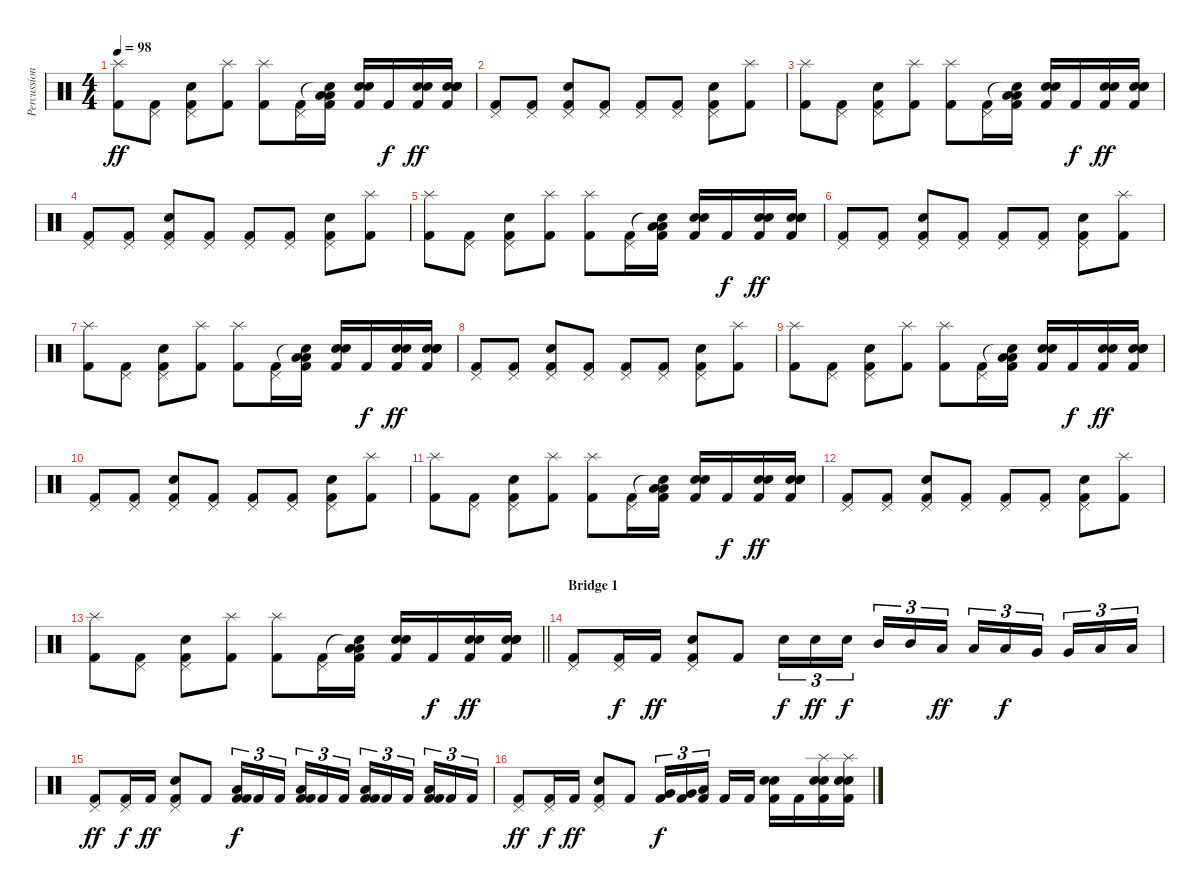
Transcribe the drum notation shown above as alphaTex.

\track ("Percussion" "Percussion") {instrument percussion}
\staff {score}
\articulation defaults
\ts (4 4)
\tempo 98
\clef neutral
\ks c
("Splash (hit)" "Kick (hit) 2").8{dy ff} ("Pedal Hi-Hat (hit)" "Kick (hit) 2").8 ("Pedal Hi-Hat (hit)" "Snare (hit) 2" "Kick (hit) 2").8 ("Splash (hit)" "Kick (hit) 2").8 ("Splash (hit)" "Kick (hit) 2").8 ("Pedal Hi-Hat (hit)" "Kick (hit) 2").16 ("Low Floor Tom (hit)" "Snare (hit)"{t} "Low Floor Tom (hit)" "Kick (hit) 2").16 ("Snare (hit) 2" "Snare (hit) 2" "Kick (hit) 2").16 "Kick (hit) 2".16{dy f} ("Snare (hit) 2" "Snare (hit) 2" "Kick (hit) 2").16{dy ff} ("Snare (hit) 2" "Snare (hit) 2" "Snare (hit) 2" "Kick (hit) 2").16 |
("Pedal Hi-Hat (hit)" "Kick (hit) 2").8 ("Pedal Hi-Hat (hit)" "Kick (hit) 2").8 ("Pedal Hi-Hat (hit)" "Snare (hit) 2" "Kick (hit) 2").8 ("Pedal Hi-Hat (hit)" "Kick (hit) 2").8 ("Pedal Hi-Hat (hit)" "Kick (hit) 2").8 ("Pedal Hi-Hat (hit)" "Kick (hit) 2").8 ("Pedal Hi-Hat (hit)" "Snare (hit) 2" "Kick (hit) 2").8 ("Splash (hit)" "Kick (hit) 2").8 |
("Splash (hit)" "Kick (hit) 2").8 ("Pedal Hi-Hat (hit)" "Kick (hit) 2").8 ("Pedal Hi-Hat (hit)" "Snare (hit) 2" "Kick (hit) 2").8 ("Splash (hit)" "Kick (hit) 2").8 ("Splash (hit)" "Kick (hit) 2").8 ("Pedal Hi-Hat (hit)" "Kick (hit) 2").16 ("Low Floor Tom (hit)" "Snare (hit)"{t} "Low Floor Tom (hit)" "Kick (hit) 2").16 ("Snare (hit) 2" "Snare (hit) 2" "Kick (hit) 2").16 "Kick (hit) 2".16{dy f} ("Snare (hit) 2" "Snare (hit) 2" "Kick (hit) 2").16{dy ff} ("Snare (hit) 2" "Snare (hit) 2" "Snare (hit) 2" "Kick (hit) 2").16 |
("Pedal Hi-Hat (hit)" "Kick (hit) 2").8 ("Pedal Hi-Hat (hit)" "Kick (hit) 2").8 ("Pedal Hi-Hat (hit)" "Snare (hit) 2" "Kick (hit) 2").8 ("Pedal Hi-Hat (hit)" "Kick (hit) 2").8 ("Pedal Hi-Hat (hit)" "Kick (hit) 2").8 ("Pedal Hi-Hat (hit)" "Kick (hit) 2").8 ("Pedal Hi-Hat (hit)" "Snare (hit) 2" "Kick (hit) 2").8 ("Splash (hit)" "Kick (hit) 2").8 |
("Splash (hit)" "Kick (hit) 2").8 ("Pedal Hi-Hat (hit)" "Kick (hit) 2").8 ("Pedal Hi-Hat (hit)" "Snare (hit) 2" "Kick (hit) 2").8 ("Splash (hit)" "Kick (hit) 2").8 ("Splash (hit)" "Kick (hit) 2").8 ("Pedal Hi-Hat (hit)" "Kick (hit) 2").16 ("Low Floor Tom (hit)" "Snare (hit)"{t} "Low Floor Tom (hit)" "Kick (hit) 2").16 ("Snare (hit) 2" "Snare (hit) 2" "Kick (hit) 2").16 "Kick (hit) 2".16{dy f} ("Snare (hit) 2" "Snare (hit) 2" "Kick (hit) 2").16{dy ff} ("Snare (hit) 2" "Snare (hit) 2" "Snare (hit) 2" "Kick (hit) 2").16 |
("Pedal Hi-Hat (hit)" "Kick (hit) 2").8 ("Pedal Hi-Hat (hit)" "Kick (hit) 2").8 ("Pedal Hi-Hat (hit)" "Snare (hit) 2" "Kick (hit) 2").8 ("Pedal Hi-Hat (hit)" "Kick (hit) 2").8 ("Pedal Hi-Hat (hit)" "Kick (hit) 2").8 ("Pedal Hi-Hat (hit)" "Kick (hit) 2").8 ("Pedal Hi-Hat (hit)" "Snare (hit) 2" "Kick (hit) 2").8 ("Splash (hit)" "Kick (hit) 2").8 |
("Splash (hit)" "Kick (hit) 2").8 ("Pedal Hi-Hat (hit)" "Kick (hit) 2").8 ("Pedal Hi-Hat (hit)" "Snare (hit) 2" "Kick (hit) 2").8 ("Splash (hit)" "Kick (hit) 2").8 ("Splash (hit)" "Kick (hit) 2").8 ("Pedal Hi-Hat (hit)" "Kick (hit) 2").16 ("Low Floor Tom (hit)" "Snare (hit)"{t} "Low Floor Tom (hit)" "Kick (hit) 2").16 ("Snare (hit) 2" "Snare (hit) 2" "Kick (hit) 2").16 "Kick (hit) 2".16{dy f} ("Snare (hit) 2" "Snare (hit) 2" "Kick (hit) 2").16{dy ff} ("Snare (hit) 2" "Snare (hit) 2" "Snare (hit) 2" "Kick (hit) 2").16 |
("Pedal Hi-Hat (hit)" "Kick (hit) 2").8 ("Pedal Hi-Hat (hit)" "Kick (hit) 2").8 ("Pedal Hi-Hat (hit)" "Snare (hit) 2" "Kick (hit) 2").8 ("Pedal Hi-Hat (hit)" "Kick (hit) 2").8 ("Pedal Hi-Hat (hit)" "Kick (hit) 2").8 ("Pedal Hi-Hat (hit)" "Kick (hit) 2").8 ("Pedal Hi-Hat (hit)" "Snare (hit) 2" "Kick (hit) 2").8 ("Splash (hit)" "Kick (hit) 2").8 |
("Splash (hit)" "Kick (hit) 2").8 ("Pedal Hi-Hat (hit)" "Kick (hit) 2").8 ("Pedal Hi-Hat (hit)" "Snare (hit) 2" "Kick (hit) 2").8 ("Splash (hit)" "Kick (hit) 2").8 ("Splash (hit)" "Kick (hit) 2").8 ("Pedal Hi-Hat (hit)" "Kick (hit) 2").16 ("Low Floor Tom (hit)" "Snare (hit)"{t} "Low Floor Tom (hit)" "Kick (hit) 2").16 ("Snare (hit) 2" "Snare (hit) 2" "Kick (hit) 2").16 "Kick (hit) 2".16{dy f} ("Snare (hit) 2" "Snare (hit) 2" "Kick (hit) 2").16{dy ff} ("Snare (hit) 2" "Snare (hit) 2" "Snare (hit) 2" "Kick (hit) 2").16 |
("Pedal Hi-Hat (hit)" "Kick (hit) 2").8 ("Pedal Hi-Hat (hit)" "Kick (hit) 2").8 ("Pedal Hi-Hat (hit)" "Snare (hit) 2" "Kick (hit) 2").8 ("Pedal Hi-Hat (hit)" "Kick (hit) 2").8 ("Pedal Hi-Hat (hit)" "Kick (hit) 2").8 ("Pedal Hi-Hat (hit)" "Kick (hit) 2").8 ("Pedal Hi-Hat (hit)" "Snare (hit) 2" "Kick (hit) 2").8 ("Splash (hit)" "Kick (hit) 2").8 |
("Splash (hit)" "Kick (hit) 2").8 ("Pedal Hi-Hat (hit)" "Kick (hit) 2").8 ("Pedal Hi-Hat (hit)" "Snare (hit) 2" "Kick (hit) 2").8 ("Splash (hit)" "Kick (hit) 2").8 ("Splash (hit)" "Kick (hit) 2").8 ("Pedal Hi-Hat (hit)" "Kick (hit) 2").16 ("Low Floor Tom (hit)" "Snare (hit)"{t} "Low Floor Tom (hit)" "Kick (hit) 2").16 ("Snare (hit) 2" "Snare (hit) 2" "Kick (hit) 2").16 "Kick (hit) 2".16{dy f} ("Snare (hit) 2" "Snare (hit) 2" "Kick (hit) 2").16{dy ff} ("Snare (hit) 2" "Snare (hit) 2" "Snare (hit) 2" "Kick (hit) 2").16 |
("Pedal Hi-Hat (hit)" "Kick (hit) 2").8 ("Pedal Hi-Hat (hit)" "Kick (hit) 2").8 ("Pedal Hi-Hat (hit)" "Snare (hit) 2" "Kick (hit) 2").8 ("Pedal Hi-Hat (hit)" "Kick (hit) 2").8 ("Pedal Hi-Hat (hit)" "Kick (hit) 2").8 ("Pedal Hi-Hat (hit)" "Kick (hit) 2").8 ("Pedal Hi-Hat (hit)" "Snare (hit) 2" "Kick (hit) 2").8 ("Splash (hit)" "Kick (hit) 2").8 |
\barLineRight lightlight
("Splash (hit)" "Kick (hit) 2").8 ("Pedal Hi-Hat (hit)" "Kick (hit) 2").8 ("Pedal Hi-Hat (hit)" "Snare (hit) 2" "Kick (hit) 2").8 ("Splash (hit)" "Kick (hit) 2").8 ("Splash (hit)" "Kick (hit) 2").8 ("Pedal Hi-Hat (hit)" "Kick (hit) 2").16 ("Low Floor Tom (hit)" "Snare (hit)"{t} "Low Floor Tom (hit)" "Kick (hit) 2").16 ("Snare (hit) 2" "Snare (hit) 2" "Kick (hit) 2").16 "Kick (hit) 2".16{dy f} ("Snare (hit) 2" "Snare (hit) 2" "Kick (hit) 2").16{dy ff} ("Snare (hit) 2" "Snare (hit) 2" "Snare (hit) 2" "Kick (hit) 2").16 |
\section ("" "Bridge 1")
("Pedal Hi-Hat (hit)" "Kick (hit) 2").8 ("Pedal Hi-Hat (hit)" "Kick (hit) 2").16{dy f} "Kick (hit) 2".16{dy ff} ("Pedal Hi-Hat (hit)" "Snare (hit) 2" "Kick (hit) 2").8 "Kick (hit) 2".8 "Snare (hit) 2".16{tu (3 2) dy f} "Snare (hit) 2".16{tu (3 2) dy ff} "Snare (hit) 2".16{tu (3 2) dy f beam splitsecondary} "Mid Tom (hit)".16{tu (3 2)} "Mid Tom (hit)".16{tu (3 2)} "Low Tom (hit)".16{tu (3 2) dy ff} "Low Tom (hit)".16{tu (3 2)} "Low Tom (hit)".16{tu (3 2) dy f} "Very Low Tom (hit)".16{tu (3 2) beam splitsecondary} "Very Low Tom (hit)".16{tu (3 2)} "Low Floor Tom (hit)".16{tu (3 2)} "Low Floor Tom (hit)".16{tu (3 2)} |
("Pedal Hi-Hat (hit)" "Kick (hit) 2").8{dy ff} ("Pedal Hi-Hat (hit)" "Kick (hit) 2").16{dy f} "Kick (hit) 2".16{dy ff} ("Pedal Hi-Hat (hit)" "Snare (hit) 2" "Kick (hit) 2").8 "Kick (hit) 2".8 ("Low Floor Tom (hit)" "Kick (hit) 2" "Kick (hit) 2").16{tu (3 2) dy f} "Kick (hit) 2".16{tu (3 2)} "Kick (hit) 2".16{tu (3 2) beam splitsecondary} ("Low Floor Tom (hit)" "Kick (hit) 2" "Kick (hit) 2").16{tu (3 2)} "Kick (hit) 2".16{tu (3 2)} "Kick (hit) 2".16{tu (3 2)} ("Low Floor Tom (hit)" "Kick (hit) 2" "Kick (hit) 2").16{tu (3 2)} "Kick (hit) 2".16{tu (3 2)} "Kick (hit) 2".16{tu (3 2) beam splitsecondary} ("Low Floor Tom (hit)" "Kick (hit) 2" "Kick (hit) 2").16{tu (3 2)} "Kick (hit) 2".16{tu (3 2)} "Kick (hit) 2".16{tu (3 2)} |
("Pedal Hi-Hat (hit)" "Kick (hit) 2").8{dy ff} ("Pedal Hi-Hat (hit)" "Kick (hit) 2").16{dy f} "Kick (hit) 2".16{dy ff} ("Pedal Hi-Hat (hit)" "Snare (hit) 2" "Kick (hit) 2").8 "Kick (hit) 2".8 ("Very Low Tom (hit)" "Kick (hit) 2").16{tu (3 2) dy f} ("Very Low Tom (hit)" "Kick (hit) 2").16{tu (3 2)} ("Low Floor Tom (hit)" "Kick (hit) 2").16{tu (3 2) beam splitsecondary} "Kick (hit) 2".16 "Kick (hit) 2".16 ("Snare (hit) 2" "Snare (hit) 2" "Kick (hit) 2").16 "Kick (hit) 2".16 ("Splash (hit)" "Snare (hit) 2" "Snare (hit) 2" "Kick (hit) 2").16 ("Splash (hit)" "Snare (hit) 2" "Snare (hit) 2" "Kick (hit) 2").16
